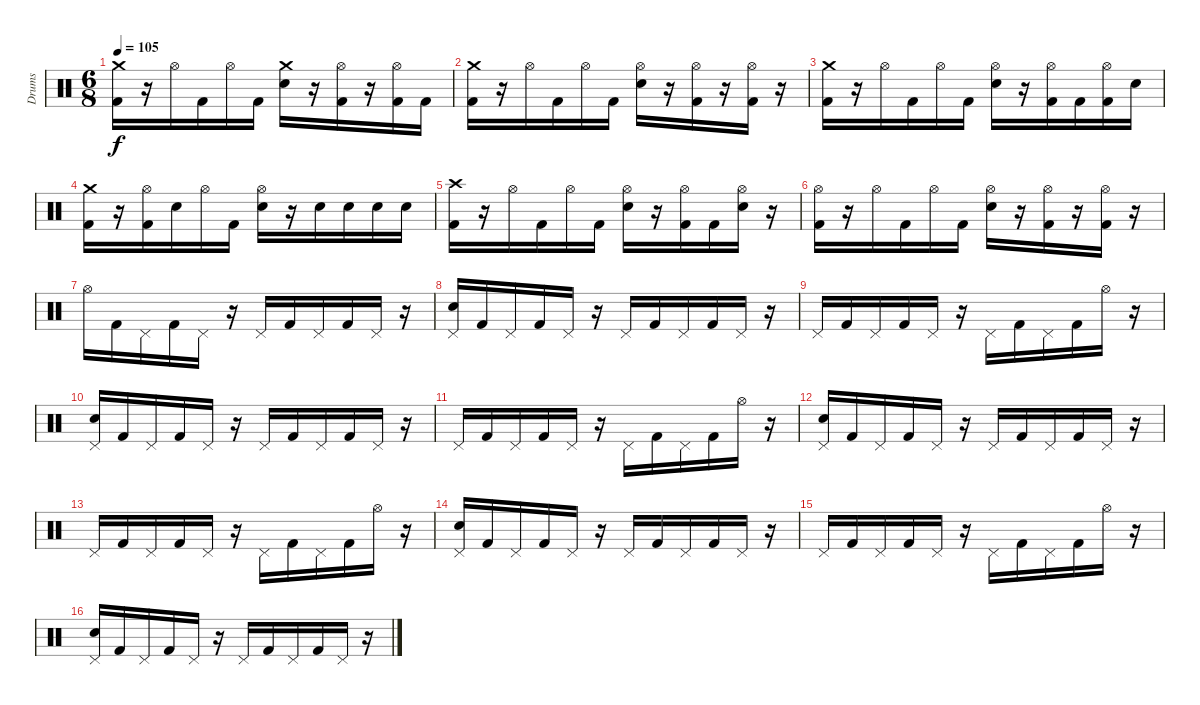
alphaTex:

\track ("Drums" "Drums") {instrument percussion}
\staff {score}
\articulation defaults
\ts (6 8)
\tempo 105
\clef neutral
\ks c
("Crash medium (hit)" "Kick (hit) 2").16{dy f} r.16 "Hi-Hat (open)".16 "Kick (hit) 2".16 "Hi-Hat (open)".16 "Kick (hit) 2".16 ("Crash medium (hit)" "Electric Snare (hit)").16 r.16 ("Hi-Hat (open)" "Kick (hit) 2").16 r.16 ("Hi-Hat (open)" "Kick (hit) 2").16 "Kick (hit) 2".16 |
("Crash medium (hit)" "Kick (hit) 2").16 r.16 "Hi-Hat (open)".16 "Kick (hit) 2".16 "Hi-Hat (open)".16 "Kick (hit) 2".16 ("Hi-Hat (open)" "Electric Snare (hit)").16 r.16 ("Hi-Hat (open)" "Kick (hit) 2").16 r.16 ("Hi-Hat (open)" "Kick (hit) 2").16 r.16 |
("Crash medium (hit)" "Kick (hit) 2").16 r.16 "Hi-Hat (open)".16 "Kick (hit) 2".16 "Hi-Hat (open)".16 "Kick (hit) 2".16 ("Hi-Hat (open)" "Electric Snare (hit)").16 r.16 ("Hi-Hat (open)" "Kick (hit) 2").16 "Kick (hit) 2".16 ("Hi-Hat (open)" "Kick (hit) 2").16 "Electric Snare (hit)".16 |
("Crash medium (hit)" "Kick (hit) 2").16 r.16 ("Hi-Hat (open)" "Kick (hit) 2").16 "Electric Snare (hit)".16 "Hi-Hat (open)".16 "Kick (hit) 2".16 ("Hi-Hat (open)" "Electric Snare (hit)").16 r.16 "Electric Snare (hit)".16 "Electric Snare (hit)".16 "Electric Snare (hit)".16 "Electric Snare (hit)".16 |
("Crash high (hit)" "Kick (hit) 2").16 r.16 "Hi-Hat (open)".16 "Kick (hit) 2".16 "Hi-Hat (open)".16 "Kick (hit) 2".16 ("Hi-Hat (open)" "Electric Snare (hit)").16 r.16 ("Hi-Hat (open)" "Kick (hit) 2").16 "Kick (hit) 2".16 ("Hi-Hat (open)" "Electric Snare (hit)").16 r.16 |
("Hi-Hat (open)" "Kick (hit) 2").16 r.16 "Hi-Hat (open)".16 "Kick (hit) 2".16 "Hi-Hat (open)".16 "Kick (hit) 2".16 ("Hi-Hat (open)" "Electric Snare (hit)").16 r.16 ("Hi-Hat (open)" "Kick (hit) 2").16 r.16 ("Hi-Hat (open)" "Kick (hit) 2").16 r.16 |
"Hi-Hat (open)".16 "Kick (hit) 2".16 "Pedal Hi-Hat (hit)".16 "Kick (hit) 2".16 "Pedal Hi-Hat (hit)".16 r.16 "Pedal Hi-Hat (hit)".16 "Kick (hit) 2".16 "Pedal Hi-Hat (hit)".16 "Kick (hit) 2".16 "Pedal Hi-Hat (hit)".16 r.16 |
("Pedal Hi-Hat (hit)" "Electric Snare (hit)").16 "Kick (hit) 2".16 "Pedal Hi-Hat (hit)".16 "Kick (hit) 2".16 "Pedal Hi-Hat (hit)".16 r.16 "Pedal Hi-Hat (hit)".16 "Kick (hit) 2".16 "Pedal Hi-Hat (hit)".16 "Kick (hit) 2".16 "Pedal Hi-Hat (hit)".16 r.16 |
"Pedal Hi-Hat (hit)".16 "Kick (hit) 2".16 "Pedal Hi-Hat (hit)".16 "Kick (hit) 2".16 "Pedal Hi-Hat (hit)".16 r.16 "Pedal Hi-Hat (hit)".16 "Kick (hit) 2".16 "Pedal Hi-Hat (hit)".16 "Kick (hit) 2".16 "Hi-Hat (open)".16 r.16 |
("Pedal Hi-Hat (hit)" "Electric Snare (hit)").16 "Kick (hit) 2".16 "Pedal Hi-Hat (hit)".16 "Kick (hit) 2".16 "Pedal Hi-Hat (hit)".16 r.16 "Pedal Hi-Hat (hit)".16 "Kick (hit) 2".16 "Pedal Hi-Hat (hit)".16 "Kick (hit) 2".16 "Pedal Hi-Hat (hit)".16 r.16 |
"Pedal Hi-Hat (hit)".16 "Kick (hit) 2".16 "Pedal Hi-Hat (hit)".16 "Kick (hit) 2".16 "Pedal Hi-Hat (hit)".16 r.16 "Pedal Hi-Hat (hit)".16 "Kick (hit) 2".16 "Pedal Hi-Hat (hit)".16 "Kick (hit) 2".16 "Hi-Hat (open)".16 r.16 |
("Pedal Hi-Hat (hit)" "Electric Snare (hit)").16 "Kick (hit) 2".16 "Pedal Hi-Hat (hit)".16 "Kick (hit) 2".16 "Pedal Hi-Hat (hit)".16 r.16 "Pedal Hi-Hat (hit)".16 "Kick (hit) 2".16 "Pedal Hi-Hat (hit)".16 "Kick (hit) 2".16 "Pedal Hi-Hat (hit)".16 r.16 |
"Pedal Hi-Hat (hit)".16 "Kick (hit) 2".16 "Pedal Hi-Hat (hit)".16 "Kick (hit) 2".16 "Pedal Hi-Hat (hit)".16 r.16 "Pedal Hi-Hat (hit)".16 "Kick (hit) 2".16 "Pedal Hi-Hat (hit)".16 "Kick (hit) 2".16 "Hi-Hat (open)".16 r.16 |
("Pedal Hi-Hat (hit)" "Electric Snare (hit)").16 "Kick (hit) 2".16 "Pedal Hi-Hat (hit)".16 "Kick (hit) 2".16 "Pedal Hi-Hat (hit)".16 r.16 "Pedal Hi-Hat (hit)".16 "Kick (hit) 2".16 "Pedal Hi-Hat (hit)".16 "Kick (hit) 2".16 "Pedal Hi-Hat (hit)".16 r.16 |
"Pedal Hi-Hat (hit)".16 "Kick (hit) 2".16 "Pedal Hi-Hat (hit)".16 "Kick (hit) 2".16 "Pedal Hi-Hat (hit)".16 r.16 "Pedal Hi-Hat (hit)".16 "Kick (hit) 2".16 "Pedal Hi-Hat (hit)".16 "Kick (hit) 2".16 "Hi-Hat (open)".16 r.16 |
("Pedal Hi-Hat (hit)" "Electric Snare (hit)").16 "Kick (hit) 2".16 "Pedal Hi-Hat (hit)".16 "Kick (hit) 2".16 "Pedal Hi-Hat (hit)".16 r.16 "Pedal Hi-Hat (hit)".16 "Kick (hit) 2".16 "Pedal Hi-Hat (hit)".16 "Kick (hit) 2".16 "Pedal Hi-Hat (hit)".16 r.16
